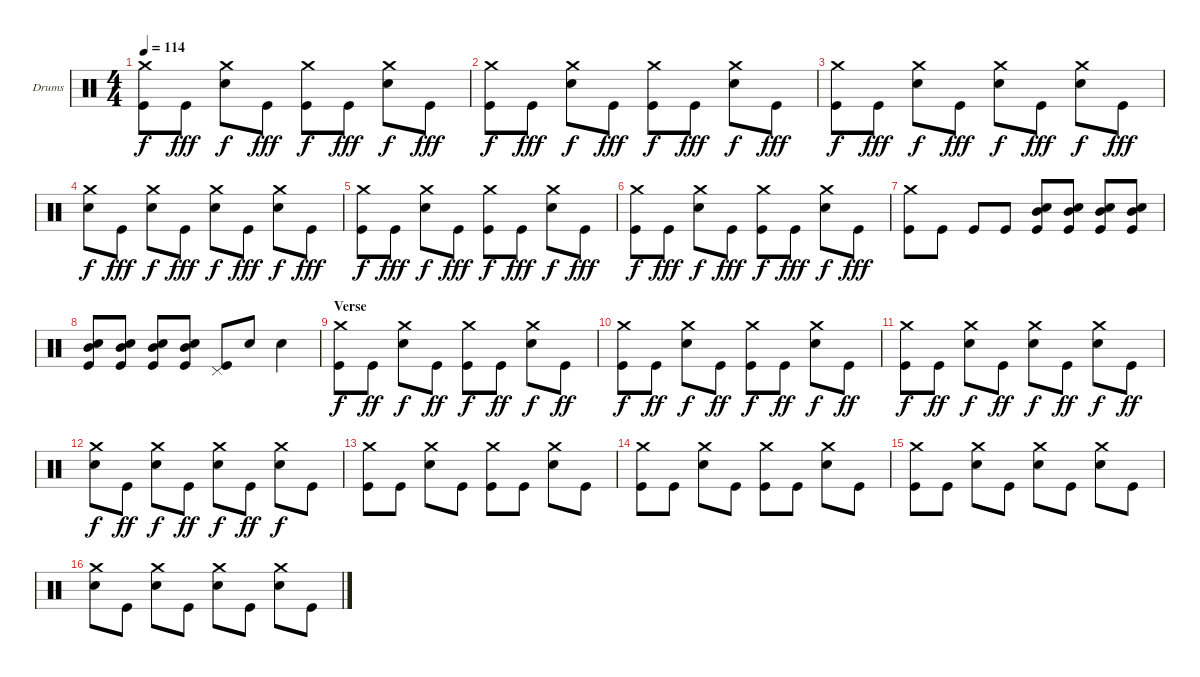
\defaultSystemsLayout 4
\bracketExtendMode groupsimilarinstruments
\firstSystemTrackNameOrientation horizontal
\otherSystemsTrackNameOrientation horizontal
\track ("Drumkit" "Drums") {instrument percussion}
\staff {score}
\articulation defaults
\ts (4 4)
\tempo 114
\clef neutral
\scale
0.973518
\ks c
("Crash medium (hit)" "Kick (hit)").8{dy f} "Kick (hit)".8{dy fff} ("Crash medium (hit)" "Snare (hit) 2").8{dy f} "Kick (hit)".8{dy fff} ("Crash medium (hit)" "Kick (hit)").8{dy f} "Kick (hit)".8{dy fff} ("Crash medium (hit)" "Snare (hit) 2").8{dy f} "Kick (hit)".8{dy fff} |
\scale
0.973518 ("Crash medium (hit)" "Kick (hit)").8{dy f} "Kick (hit)".8{dy fff} ("Crash medium (hit)" "Snare (hit) 2").8{dy f} "Kick (hit)".8{dy fff} ("Crash medium (hit)" "Kick (hit)").8{dy f} "Kick (hit)".8{dy fff} ("Crash medium (hit)" "Snare (hit) 2").8{dy f} "Kick (hit)".8{dy fff} |
\scale
1.05296 ("Crash medium (hit)" "Kick (hit)").8{dy f} "Kick (hit)".8{dy fff} ("Crash medium (hit)" "Snare (hit) 2").8{dy f} "Kick (hit)".8{dy fff} ("Crash medium (hit)" "Snare (hit) 2").8{dy f} "Kick (hit)".8{dy fff} ("Crash medium (hit)" "Snare (hit) 2").8{dy f} "Kick (hit)".8{dy fff} |
\scale
0.973518 ("Crash medium (hit)" "Snare (hit) 2").8{dy f} "Kick (hit)".8{dy fff} ("Crash medium (hit)" "Snare (hit) 2").8{dy f} "Kick (hit)".8{dy fff} ("Crash medium (hit)" "Snare (hit) 2").8{dy f} "Kick (hit)".8{dy fff} ("Crash medium (hit)" "Snare (hit) 2").8{dy f} "Kick (hit)".8{dy fff} |
\scale
0.973518 ("Crash medium (hit)" "Kick (hit)").8{dy f} "Kick (hit)".8{dy fff} ("Crash medium (hit)" "Snare (hit) 2").8{dy f} "Kick (hit)".8{dy fff} ("Crash medium (hit)" "Kick (hit)").8{dy f} "Kick (hit)".8{dy fff} ("Crash medium (hit)" "Snare (hit) 2").8{dy f} "Kick (hit)".8{dy fff} |
\scale
1.05296 ("Crash medium (hit)" "Kick (hit)").8{dy f} "Kick (hit)".8{dy fff} ("Crash medium (hit)" "Snare (hit) 2").8{dy f} "Kick (hit)".8{dy fff} ("Crash medium (hit)" "Kick (hit)").8{dy f} "Kick (hit)".8{dy fff} ("Crash medium (hit)" "Snare (hit) 2").8{dy f} "Kick (hit)".8{dy fff} |
\scale
0.973518 ("Crash medium (hit)" "Kick (hit)").8 "Kick (hit)".8 "Kick (hit)".8 "Kick (hit)".8 ("Snare (hit) 2" "Mid Tom (hit)" "Kick (hit)").8 ("Snare (hit) 2" "Mid Tom (hit)" "Kick (hit)").8 ("Snare (hit) 2" "Mid Tom (hit)" "Kick (hit)").8 ("Snare (hit) 2" "Mid Tom (hit)" "Kick (hit)").8 |
\scale
0.973518 ("Snare (hit) 2" "Mid Tom (hit)" "Kick (hit)").8 ("Snare (hit) 2" "Mid Tom (hit)" "Kick (hit)").8 ("Snare (hit) 2" "Mid Tom (hit)" "Kick (hit)").8 ("Snare (hit) 2" "Mid Tom (hit)" "Kick (hit)").8 ("Pedal Hi-Hat (hit)" "Kick (hit)").8 "Snare (hit) 2".8 "Snare (hit) 2".4 |
\section ("" "Verse")
\scale
1.05296 ("Crash medium (hit)" "Kick (hit)").8{dy f} "Kick (hit)".8{dy ff} ("Crash medium (hit)" "Snare (hit) 2").8{dy f} "Kick (hit)".8{dy ff} ("Crash medium (hit)" "Kick (hit)").8{dy f} "Kick (hit)".8{dy ff} ("Crash medium (hit)" "Snare (hit) 2").8{dy f} "Kick (hit)".8{dy ff} |
\scale
0.973518 ("Crash medium (hit)" "Kick (hit)").8{dy f} "Kick (hit)".8{dy ff} ("Crash medium (hit)" "Snare (hit) 2").8{dy f} "Kick (hit)".8{dy ff} ("Crash medium (hit)" "Kick (hit)").8{dy f} "Kick (hit)".8{dy ff} ("Crash medium (hit)" "Snare (hit) 2").8{dy f} "Kick (hit)".8{dy ff} |
\scale
0.973518 ("Crash medium (hit)" "Kick (hit)").8{dy f} "Kick (hit)".8{dy ff} ("Crash medium (hit)" "Snare (hit) 2").8{dy f} "Kick (hit)".8{dy ff} ("Crash medium (hit)" "Snare (hit) 2").8{dy f} "Kick (hit)".8{dy ff} ("Crash medium (hit)" "Snare (hit) 2").8{dy f} "Kick (hit)".8{dy ff} |
\scale
1.05296 ("Crash medium (hit)" "Snare (hit) 2").8{dy f} "Kick (hit)".8{dy ff} ("Crash medium (hit)" "Snare (hit) 2").8{dy f} "Kick (hit)".8{dy ff} ("Crash medium (hit)" "Snare (hit) 2").8{dy f} "Kick (hit)".8{dy ff} ("Crash medium (hit)" "Snare (hit) 2").8{dy f} "Kick (hit)".8 |
\scale
0.973518 ("Crash medium (hit)" "Kick (hit)").8 "Kick (hit)".8 ("Crash medium (hit)" "Snare (hit) 2").8 "Kick (hit)".8 ("Crash medium (hit)" "Kick (hit)").8 "Kick (hit)".8 ("Crash medium (hit)" "Snare (hit) 2").8 "Kick (hit)".8 |
\scale
0.973518 ("Crash medium (hit)" "Kick (hit)").8 "Kick (hit)".8 ("Crash medium (hit)" "Snare (hit) 2").8 "Kick (hit)".8 ("Crash medium (hit)" "Kick (hit)").8 "Kick (hit)".8 ("Crash medium (hit)" "Snare (hit) 2").8 "Kick (hit)".8 |
\scale
1.05296 ("Crash medium (hit)" "Kick (hit)").8 "Kick (hit)".8 ("Crash medium (hit)" "Snare (hit) 2").8 "Kick (hit)".8 ("Crash medium (hit)" "Snare (hit) 2").8 "Kick (hit)".8 ("Crash medium (hit)" "Snare (hit) 2").8 "Kick (hit)".8 |
\scale
0.973518 ("Crash medium (hit)" "Snare (hit) 2").8 "Kick (hit)".8 ("Crash medium (hit)" "Snare (hit) 2").8 "Kick (hit)".8 ("Crash medium (hit)" "Snare (hit) 2").8 "Kick (hit)".8 ("Crash medium (hit)" "Snare (hit) 2").8 "Kick (hit)".8
